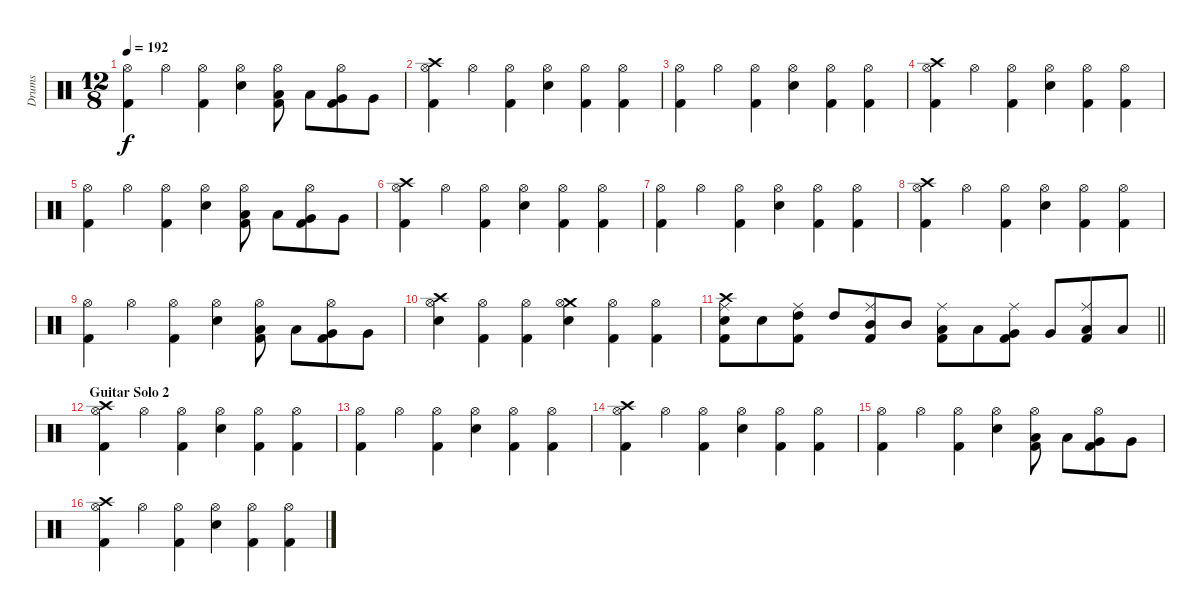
\track ("Drums" "Drums") {instrument percussion}
\staff {score}
\articulation defaults
\ts (12 8)
\tempo 192
\clef neutral
\ks c
("Hi-Hat (open)" "Kick (hit) 2").4{dy f} "Hi-Hat (open)".4 ("Hi-Hat (open)" "Kick (hit) 2").4 ("Hi-Hat (open)" "Snare (hit) 2").4 ("Hi-Hat (open)" "Low Tom (hit)" "Kick (hit) 2").8 "Low Tom (hit)".8 ("Hi-Hat (open)" "Very Low Tom (hit)" "Kick (hit) 2").8 "Very Low Tom (hit)".8 |
("Crash high (hit)" "Hi-Hat (open)" "Kick (hit) 2").4 "Hi-Hat (open)".4 ("Hi-Hat (open)" "Kick (hit) 2").4 ("Hi-Hat (open)" "Snare (hit) 2").4 ("Hi-Hat (open)" "Kick (hit) 2").4 ("Hi-Hat (open)" "Kick (hit) 2").4 |
("Hi-Hat (open)" "Kick (hit) 2").4 "Hi-Hat (open)".4 ("Hi-Hat (open)" "Kick (hit) 2").4 ("Hi-Hat (open)" "Snare (hit) 2").4 ("Hi-Hat (open)" "Kick (hit) 2").4 ("Hi-Hat (open)" "Kick (hit) 2").4 |
("Crash high (hit)" "Hi-Hat (open)" "Kick (hit) 2").4 "Hi-Hat (open)".4 ("Hi-Hat (open)" "Kick (hit) 2").4 ("Hi-Hat (open)" "Snare (hit) 2").4 ("Hi-Hat (open)" "Kick (hit) 2").4 ("Hi-Hat (open)" "Kick (hit) 2").4 |
("Hi-Hat (open)" "Kick (hit) 2").4 "Hi-Hat (open)".4 ("Hi-Hat (open)" "Kick (hit) 2").4 ("Hi-Hat (open)" "Snare (hit) 2").4 ("Hi-Hat (open)" "Low Tom (hit)" "Kick (hit) 2").8 "Low Tom (hit)".8 ("Hi-Hat (open)" "Very Low Tom (hit)" "Kick (hit) 2").8 "Very Low Tom (hit)".8 |
("Crash high (hit)" "Hi-Hat (open)" "Kick (hit) 2").4 "Hi-Hat (open)".4 ("Hi-Hat (open)" "Kick (hit) 2").4 ("Hi-Hat (open)" "Snare (hit) 2").4 ("Hi-Hat (open)" "Kick (hit) 2").4 ("Hi-Hat (open)" "Kick (hit) 2").4 |
("Hi-Hat (open)" "Kick (hit) 2").4 "Hi-Hat (open)".4 ("Hi-Hat (open)" "Kick (hit) 2").4 ("Hi-Hat (open)" "Snare (hit) 2").4 ("Hi-Hat (open)" "Kick (hit) 2").4 ("Hi-Hat (open)" "Kick (hit) 2").4 |
("Crash high (hit)" "Hi-Hat (open)" "Kick (hit) 2").4 "Hi-Hat (open)".4 ("Hi-Hat (open)" "Kick (hit) 2").4 ("Hi-Hat (open)" "Snare (hit) 2").4 ("Hi-Hat (open)" "Kick (hit) 2").4 ("Hi-Hat (open)" "Kick (hit) 2").4 |
("Hi-Hat (open)" "Kick (hit) 2").4 "Hi-Hat (open)".4 ("Hi-Hat (open)" "Kick (hit) 2").4 ("Hi-Hat (open)" "Snare (hit) 2").4 ("Hi-Hat (open)" "Low Tom (hit)" "Kick (hit) 2").8 "Low Tom (hit)".8 ("Hi-Hat (open)" "Very Low Tom (hit)" "Kick (hit) 2").8 "Very Low Tom (hit)".8 |
("Crash high (hit)" "Hi-Hat (open)" "Snare (hit) 2").4 ("Hi-Hat (open)" "Kick (hit) 2").4 ("Hi-Hat (open)" "Kick (hit) 2").4 ("Crash medium (hit)" "Hi-Hat (open)" "Snare (hit) 2").4 ("Hi-Hat (open)" "Kick (hit) 2").4 ("Hi-Hat (open)" "Kick (hit) 2").4 |
\barLineRight lightlight
("Crash high (hit)" "Ride (middle)" "Snare (hit) 2" "Kick (hit) 2").8 "Snare (hit) 2".8 ("Ride (middle)" "High Tom (hit)" "Kick (hit) 2").8 "High Tom (hit)".8 ("Ride (middle)" "Mid Tom (hit)" "Kick (hit) 2").8 "Mid Tom (hit)".8 ("Ride (middle)" "Low Tom (hit)" "Kick (hit) 2").8 "Low Tom (hit)".8 ("Ride (middle)" "Very Low Tom (hit)" "Kick (hit) 2").8 "Very Low Tom (hit)".8 ("Ride (middle)" "Low Floor Tom (hit)" "Kick (hit) 2").8 "Low Floor Tom (hit)".8 |
\section ("" "Guitar Solo 2")
("Crash high (hit)" "Hi-Hat (open)" "Kick (hit) 2").4 "Hi-Hat (open)".4 ("Hi-Hat (open)" "Kick (hit) 2").4 ("Hi-Hat (open)" "Snare (hit) 2").4 ("Hi-Hat (open)" "Kick (hit) 2").4 ("Hi-Hat (open)" "Kick (hit) 2").4 |
("Hi-Hat (open)" "Kick (hit) 2").4 "Hi-Hat (open)".4 ("Hi-Hat (open)" "Kick (hit) 2").4 ("Hi-Hat (open)" "Snare (hit) 2").4 ("Hi-Hat (open)" "Kick (hit) 2").4 ("Hi-Hat (open)" "Kick (hit) 2").4 |
("Crash high (hit)" "Hi-Hat (open)" "Kick (hit) 2").4 "Hi-Hat (open)".4 ("Hi-Hat (open)" "Kick (hit) 2").4 ("Hi-Hat (open)" "Snare (hit) 2").4 ("Hi-Hat (open)" "Kick (hit) 2").4 ("Hi-Hat (open)" "Kick (hit) 2").4 |
("Hi-Hat (open)" "Kick (hit) 2").4 "Hi-Hat (open)".4 ("Hi-Hat (open)" "Kick (hit) 2").4 ("Hi-Hat (open)" "Snare (hit) 2").4 ("Hi-Hat (open)" "Low Tom (hit)" "Kick (hit) 2").8 "Low Tom (hit)".8 ("Hi-Hat (open)" "Very Low Tom (hit)" "Kick (hit) 2").8 "Very Low Tom (hit)".8 |
("Crash high (hit)" "Hi-Hat (open)" "Kick (hit) 2").4 "Hi-Hat (open)".4 ("Hi-Hat (open)" "Kick (hit) 2").4 ("Hi-Hat (open)" "Snare (hit) 2").4 ("Hi-Hat (open)" "Kick (hit) 2").4 ("Hi-Hat (open)" "Kick (hit) 2").4
